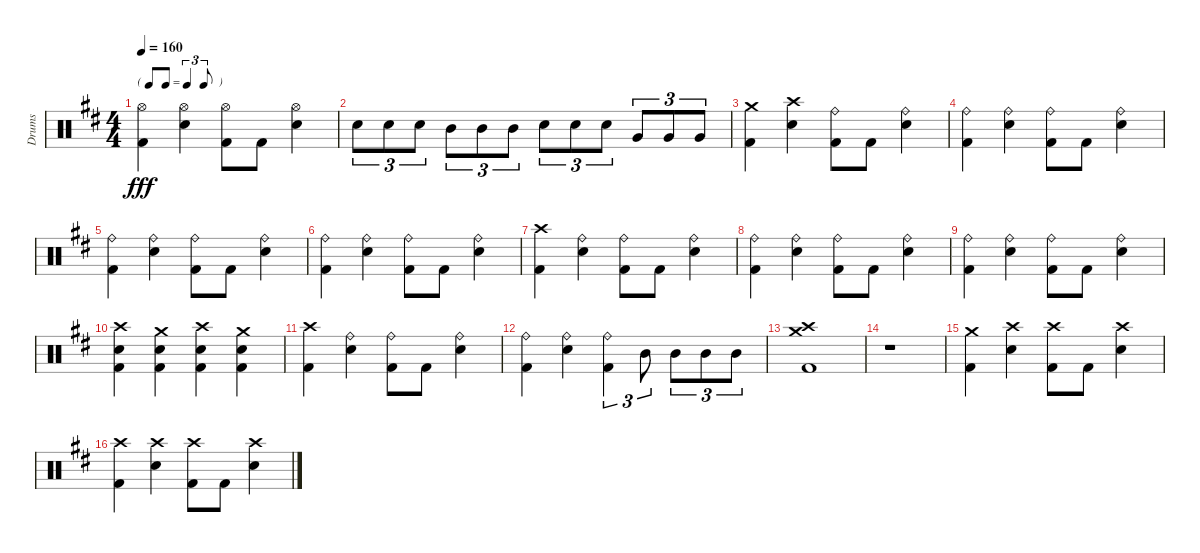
\track ("Drums" "Drums") {instrument percussion}
\staff {score}
\articulation defaults
\ts (4 4)
\tf triplet8th
\tempo 160
\clef neutral
\ks d
("Hi-Hat (open)" "Kick (hit) 2").4{dy fff} ("Hi-Hat (open)" "Electric Snare (hit)").4 ("Hi-Hat (open)" "Kick (hit) 2").8 "Kick (hit) 2".8 ("Hi-Hat (open)" "Electric Snare (hit)").4 |
"Electric Snare (hit)".8{tu (3 2)} "Electric Snare (hit)".8{tu (3 2)} "Electric Snare (hit)".8{tu (3 2)} "Mid Tom (hit)".8{tu (3 2)} "Mid Tom (hit)".8{tu (3 2)} "Mid Tom (hit)".8{tu (3 2)} "Electric Snare (hit)".8{tu (3 2)} "Electric Snare (hit)".8{tu (3 2)} "Electric Snare (hit)".8{tu (3 2)} "Very Low Tom (hit)".8{tu (3 2)} "Very Low Tom (hit)".8{tu (3 2)} "Very Low Tom (hit)".8{tu (3 2)} |
("Crash medium (hit)" "Kick (hit) 2").4 ("Crash high (hit)" "Electric Snare (hit)").4 ("Ride (bell)" "Kick (hit) 2").8 "Kick (hit) 2".8 ("Ride (bell)" "Electric Snare (hit)").4 |
("Ride (bell)" "Kick (hit) 2").4 ("Ride (bell)" "Electric Snare (hit)").4 ("Ride (bell)" "Kick (hit) 2").8 "Kick (hit) 2".8 ("Ride (bell)" "Electric Snare (hit)").4 |
("Ride (bell)" "Kick (hit) 2").4 ("Ride (bell)" "Electric Snare (hit)").4 ("Ride (bell)" "Kick (hit) 2").8 "Kick (hit) 2".8 ("Ride (bell)" "Electric Snare (hit)").4 |
("Ride (bell)" "Kick (hit) 2").4 ("Ride (bell)" "Electric Snare (hit)").4 ("Ride (bell)" "Kick (hit) 2").8 "Kick (hit) 2".8 ("Ride (bell)" "Electric Snare (hit)").4 |
("Crash high (hit)" "Kick (hit) 2").4 ("Ride (bell)" "Electric Snare (hit)").4 ("Ride (bell)" "Kick (hit) 2").8 "Kick (hit) 2".8 ("Ride (bell)" "Electric Snare (hit)").4 |
("Ride (bell)" "Kick (hit) 2").4 ("Ride (bell)" "Electric Snare (hit)").4 ("Ride (bell)" "Kick (hit) 2").8 "Kick (hit) 2".8 ("Ride (bell)" "Electric Snare (hit)").4 |
("Ride (bell)" "Kick (hit) 2").4 ("Ride (bell)" "Electric Snare (hit)").4 ("Ride (bell)" "Kick (hit) 2").8 "Kick (hit) 2".8 ("Ride (bell)" "Electric Snare (hit)").4 |
("Crash high (hit)" "Electric Snare (hit)" "Kick (hit) 2").4 ("Crash medium (hit)" "Electric Snare (hit)" "Kick (hit) 2").4 ("Crash high (hit)" "Electric Snare (hit)" "Kick (hit) 2").4 ("Crash medium (hit)" "Electric Snare (hit)" "Kick (hit) 2").4 |
("Crash high (hit)" "Kick (hit) 2").4 ("Ride (bell)" "Electric Snare (hit)").4 ("Ride (bell)" "Kick (hit) 2").8 "Kick (hit) 2".8 ("Ride (bell)" "Electric Snare (hit)").4 |
("Ride (bell)" "Kick (hit) 2").4 ("Ride (bell)" "Electric Snare (hit)").4 ("Ride (bell)" "Kick (hit) 2").4{tu (3 2)} "Mid Tom (hit)".8{tu (3 2)} "Mid Tom (hit)".8{tu (3 2)} "Mid Tom (hit)".8{tu (3 2)} "Mid Tom (hit)".8{tu (3 2)} |
("Crash high (hit)" "Crash medium (hit)" "Kick (hit) 2").1 |
r.1 |
("Crash medium (hit)" "Kick (hit) 2").4 ("Crash high (hit)" "Electric Snare (hit)").4 ("Crash high (hit)" "Kick (hit) 2").8 "Kick (hit) 2".8 ("Crash high (hit)" "Electric Snare (hit)").4 |
("Crash high (hit)" "Kick (hit) 2").4 ("Crash high (hit)" "Electric Snare (hit)").4 ("Crash high (hit)" "Kick (hit) 2").8 "Kick (hit) 2".8 ("Crash high (hit)" "Electric Snare (hit)").4
